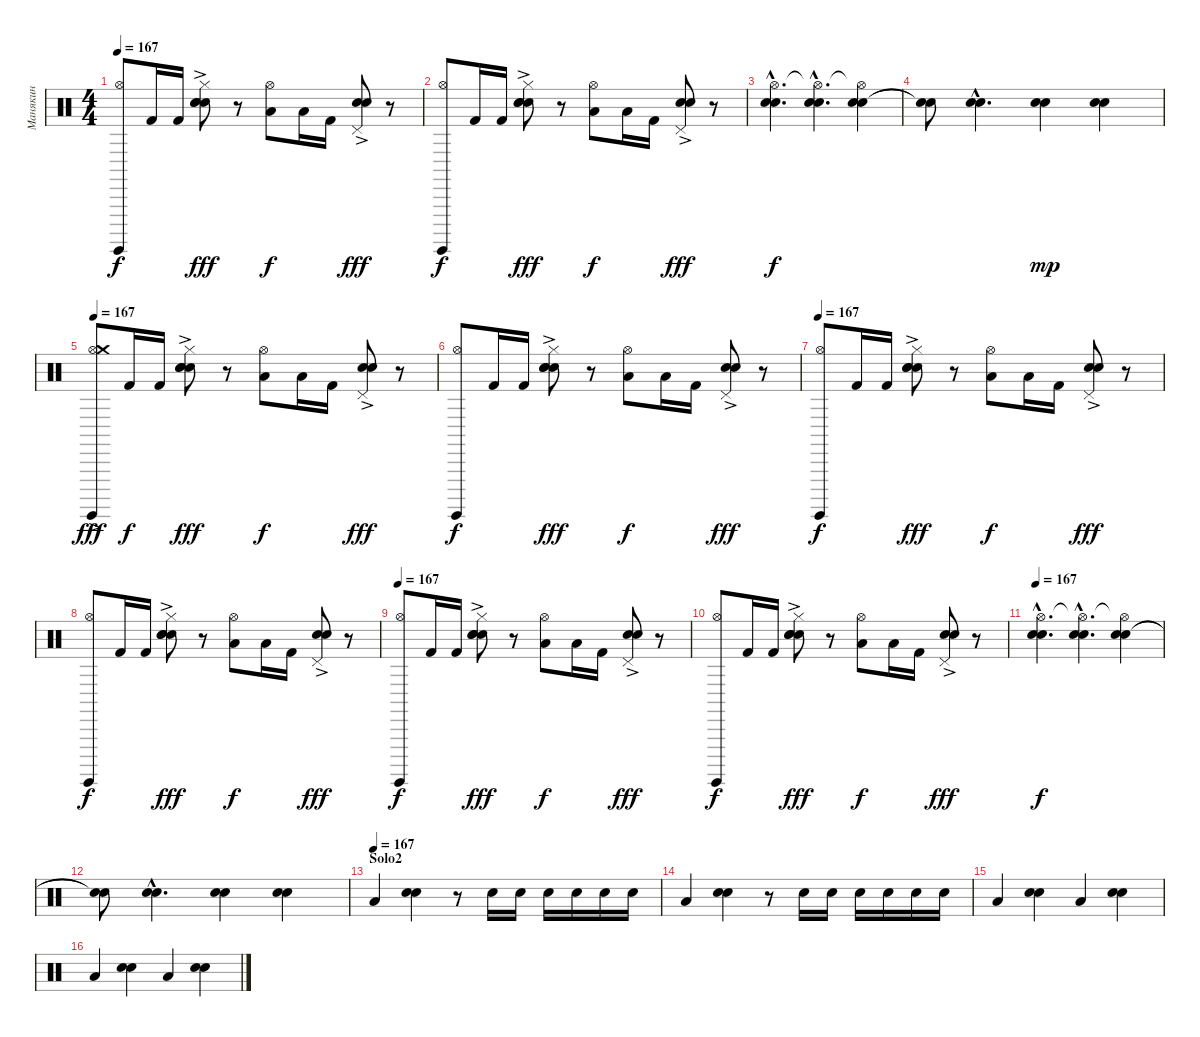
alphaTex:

\track ("Манякин" "Манякин") {instrument percussion}
\staff {score}
\articulation defaults
\ts (4 4)
\tempo 167
\clef neutral
\ks c
("Surdo (hit)" "Hi-Hat (open)").8{dy f} "Kick (hit) 2".16 "Kick (hit) 2".16 ("Hi-Hat (closed)" "Electric Snare (hit)"{ac} "Snare (hit) 2" "Electric Snare (hit)").8{dy fff} r.8 ("Low Tom (hit)" "Hi-Hat (open)").8{dy f} "Low Tom (hit)".16 "Kick (hit) 2".16 ("Electric Snare (hit)"{ac} "Snare (hit) 2" "Pedal Hi-Hat (hit)").8{dy fff} r.8 |
("Surdo (hit)" "Hi-Hat (open)").8{dy f} "Kick (hit) 2".16 "Kick (hit) 2".16 ("Hi-Hat (closed)" "Electric Snare (hit)"{ac} "Snare (hit) 2" "Electric Snare (hit)").8{dy fff} r.8 ("Low Tom (hit)" "Hi-Hat (open)").8{dy f} "Low Tom (hit)".16 "Kick (hit) 2".16 ("Electric Snare (hit)"{ac} "Snare (hit) 2" "Pedal Hi-Hat (hit)").8{dy fff} r.8 |
("Electric Snare (hit)"{hac} "Snare (hit) 2"{hac} "Hi-Hat (open)"{hac}).4{d dy f} ("Electric Snare (hit)"{hac} "Snare (hit) 2"{hac} "Hi-Hat (open)"{hac t}).4{d} ("Electric Snare (hit)" "Snare (hit) 2" "Hi-Hat (open)"{t}).4 |
("Snare (hit)"{t} "Snare (hit)"{t}).8 ("Electric Snare (hit)"{hac} "Snare (hit) 2"{hac}).4{d} ("Electric Snare (hit)" "Snare (hit) 2").4{dy mp} ("Snare (hit) 2" "Electric Snare (hit)").4 |
\tempo 167
("Surdo (hit)" "Hi-Hat (open)" "Crash medium (hit)"{ac}).8{dy fff volume 15} "Kick (hit) 2".16{dy f} "Kick (hit) 2".16 ("Hi-Hat (closed)" "Electric Snare (hit)"{ac} "Snare (hit) 2" "Electric Snare (hit)").8{dy fff} r.8 ("Low Tom (hit)" "Hi-Hat (open)").8{dy f} "Low Tom (hit)".16 "Kick (hit) 2".16 ("Electric Snare (hit)"{ac} "Snare (hit) 2" "Pedal Hi-Hat (hit)").8{dy fff} r.8 |
("Surdo (hit)" "Hi-Hat (open)").8{dy f} "Kick (hit) 2".16 "Kick (hit) 2".16 ("Hi-Hat (closed)" "Electric Snare (hit)"{ac} "Snare (hit) 2" "Electric Snare (hit)").8{dy fff} r.8 ("Low Tom (hit)" "Hi-Hat (open)").8{dy f} "Low Tom (hit)".16 "Kick (hit) 2".16 ("Electric Snare (hit)"{ac} "Snare (hit) 2" "Pedal Hi-Hat (hit)").8{dy fff} r.8 |
\tempo 167
("Surdo (hit)" "Hi-Hat (open)").8{dy f} "Kick (hit) 2".16 "Kick (hit) 2".16 ("Hi-Hat (closed)" "Electric Snare (hit)"{ac} "Snare (hit) 2" "Electric Snare (hit)").8{dy fff} r.8 ("Low Tom (hit)" "Hi-Hat (open)").8{dy f} "Low Tom (hit)".16 "Kick (hit) 2".16 ("Electric Snare (hit)"{ac} "Snare (hit) 2" "Pedal Hi-Hat (hit)").8{dy fff} r.8 |
("Surdo (hit)" "Hi-Hat (open)").8{dy f} "Kick (hit) 2".16 "Kick (hit) 2".16 ("Hi-Hat (closed)" "Electric Snare (hit)"{ac} "Snare (hit) 2" "Electric Snare (hit)").8{dy fff} r.8 ("Low Tom (hit)" "Hi-Hat (open)").8{dy f} "Low Tom (hit)".16 "Kick (hit) 2".16 ("Electric Snare (hit)"{ac} "Snare (hit) 2" "Pedal Hi-Hat (hit)").8{dy fff} r.8 |
\tempo 167
("Surdo (hit)" "Hi-Hat (open)").8{dy f} "Kick (hit) 2".16 "Kick (hit) 2".16 ("Hi-Hat (closed)" "Electric Snare (hit)"{ac} "Snare (hit) 2" "Electric Snare (hit)").8{dy fff} r.8 ("Low Tom (hit)" "Hi-Hat (open)").8{dy f} "Low Tom (hit)".16 "Kick (hit) 2".16 ("Electric Snare (hit)"{ac} "Snare (hit) 2" "Pedal Hi-Hat (hit)").8{dy fff} r.8 |
("Surdo (hit)" "Hi-Hat (open)").8{dy f} "Kick (hit) 2".16 "Kick (hit) 2".16 ("Hi-Hat (closed)" "Electric Snare (hit)"{ac} "Snare (hit) 2" "Electric Snare (hit)").8{dy fff} r.8 ("Low Tom (hit)" "Hi-Hat (open)").8{dy f} "Low Tom (hit)".16 "Kick (hit) 2".16 ("Electric Snare (hit)"{ac} "Snare (hit) 2" "Pedal Hi-Hat (hit)").8{dy fff} r.8 |
\tempo 167
("Electric Snare (hit)"{hac} "Snare (hit) 2"{hac} "Hi-Hat (open)"{hac}).4{d dy f} ("Electric Snare (hit)"{hac} "Snare (hit) 2"{hac} "Hi-Hat (open)"{hac t}).4{d} ("Electric Snare (hit)" "Snare (hit) 2" "Hi-Hat (open)"{t}).4 |
("Snare (hit)"{t} "Snare (hit)"{t}).8 ("Snare (hit) 2"{hac} "Electric Snare (hit)"{hac}).4{d} ("Snare (hit) 2" "Electric Snare (hit)").4 ("Electric Snare (hit)" "Snare (hit) 2").4 |
\section ("" "Solo2")
\tempo (167)
"Low Tom (hit)".4 ("Electric Snare (hit)" "Snare (hit) 2").4 r.8 "Electric Snare (hit)".16 "Electric Snare (hit)".16 "Electric Snare (hit)".16 "Electric Snare (hit)".16 "Electric Snare (hit)".16 "Electric Snare (hit)".16 |
"Low Tom (hit)".4 ("Electric Snare (hit)" "Snare (hit) 2").4 r.8 "Electric Snare (hit)".16 "Electric Snare (hit)".16 "Electric Snare (hit)".16 "Electric Snare (hit)".16 "Electric Snare (hit)".16 "Electric Snare (hit)".16 |
"Low Tom (hit)".4 ("Electric Snare (hit)" "Snare (hit) 2").4 "Low Tom (hit)".4 ("Electric Snare (hit)" "Snare (hit) 2").4 |
"Low Tom (hit)".4 ("Electric Snare (hit)" "Snare (hit) 2").4 "Low Tom (hit)".4 ("Electric Snare (hit)" "Snare (hit) 2").4
